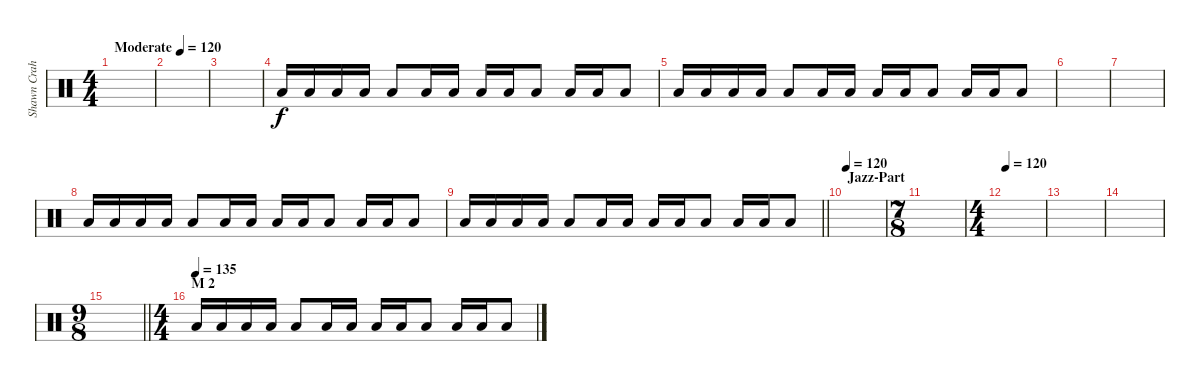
\track ("Shawn Crahan" "Shawn Crah") {instrument percussion}
\staff {score}
\articulation defaults
\ts (4 4)
\tempo (120 "Moderate")
\clef neutral
\ks c
|
|
|
"Low Floor Tom (hit)".16 "Low Floor Tom (hit)".16 "Low Floor Tom (hit)".16 "Low Floor Tom (hit)".16 "Low Floor Tom (hit)".8 "Low Floor Tom (hit)".16 "Low Floor Tom (hit)".16 "Low Floor Tom (hit)".16 "Low Floor Tom (hit)".16 "Low Floor Tom (hit)".8 "Low Floor Tom (hit)".16 "Low Floor Tom (hit)".16 "Low Floor Tom (hit)".8 |
"Low Floor Tom (hit)".16 "Low Floor Tom (hit)".16 "Low Floor Tom (hit)".16 "Low Floor Tom (hit)".16 "Low Floor Tom (hit)".8 "Low Floor Tom (hit)".16 "Low Floor Tom (hit)".16 "Low Floor Tom (hit)".16 "Low Floor Tom (hit)".16 "Low Floor Tom (hit)".8 "Low Floor Tom (hit)".16 "Low Floor Tom (hit)".16 "Low Floor Tom (hit)".8 |
|
|
"Low Floor Tom (hit)".16 "Low Floor Tom (hit)".16 "Low Floor Tom (hit)".16 "Low Floor Tom (hit)".16 "Low Floor Tom (hit)".8 "Low Floor Tom (hit)".16 "Low Floor Tom (hit)".16 "Low Floor Tom (hit)".16 "Low Floor Tom (hit)".16 "Low Floor Tom (hit)".8 "Low Floor Tom (hit)".16 "Low Floor Tom (hit)".16 "Low Floor Tom (hit)".8 |
\barLineRight lightlight "Low Floor Tom (hit)".16 "Low Floor Tom (hit)".16 "Low Floor Tom (hit)".16 "Low Floor Tom (hit)".16 "Low Floor Tom (hit)".8 "Low Floor Tom (hit)".16 "Low Floor Tom (hit)".16 "Low Floor Tom (hit)".16 "Low Floor Tom (hit)".16 "Low Floor Tom (hit)".8 "Low Floor Tom (hit)".16 "Low Floor Tom (hit)".16 "Low Floor Tom (hit)".8
|
\section ("" "Jazz-Part")
\tempo 120
|
\ts (7 8)
|
\ts (4 4)
\tempo 120
|
|
|
\ts (9 8)
\barLineRight lightlight
|
\ts (4 4)
\section ("" "M 2")
\tempo (135)
"Low Floor Tom (hit)".16 "Low Floor Tom (hit)".16 "Low Floor Tom (hit)".16 "Low Floor Tom (hit)".16 "Low Floor Tom (hit)".8 "Low Floor Tom (hit)".16 "Low Floor Tom (hit)".16 "Low Floor Tom (hit)".16 "Low Floor Tom (hit)".16 "Low Floor Tom (hit)".8 "Low Floor Tom (hit)".16 "Low Floor Tom (hit)".16 "Low Floor Tom (hit)".8
